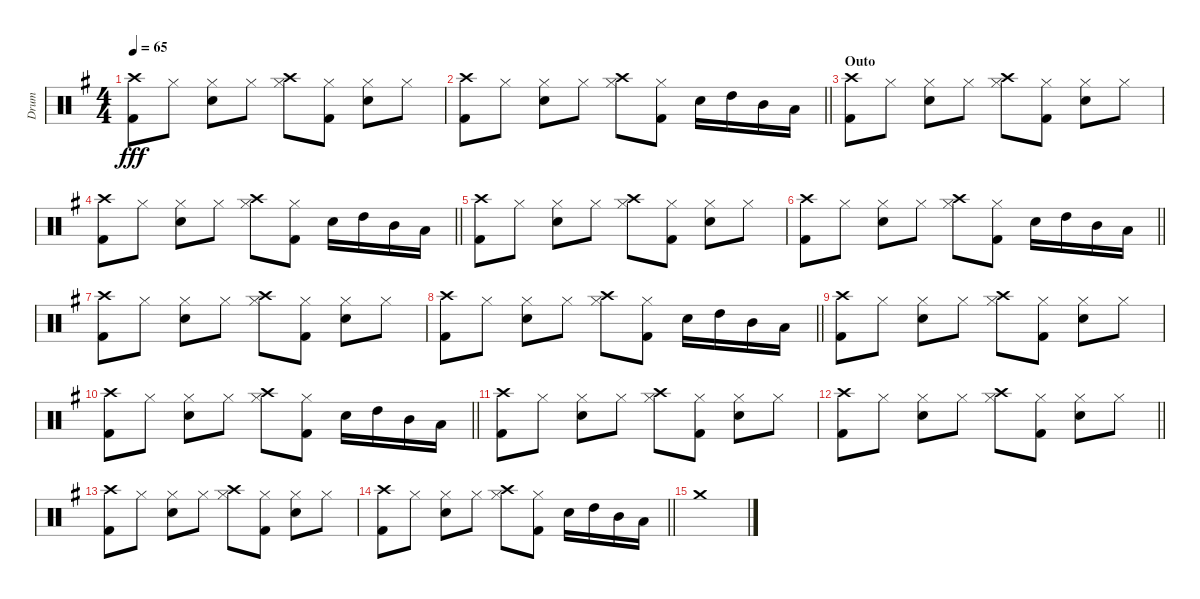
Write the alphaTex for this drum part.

\track ("Drum" "Drum") {instrument percussion}
\staff {score}
\articulation defaults
\ts (4 4)
\tempo 65
\clef neutral
\ks eminor
("Crash high (hit)" "Kick (hit) 2").8{dy fff} "Hi-Hat (closed)".8 ("Electric Snare (hit)" "Hi-Hat (closed)").8 "Hi-Hat (closed)".8 ("Crash high (hit)" "Hi-Hat (closed)").8 ("Kick (hit) 2" "Hi-Hat (closed)").8 ("Electric Snare (hit)" "Hi-Hat (closed)").8 "Hi-Hat (closed)".8 |
\barLineRight lightlight
("Crash high (hit)" "Kick (hit) 2").8 "Hi-Hat (closed)".8 ("Electric Snare (hit)" "Hi-Hat (closed)").8 "Hi-Hat (closed)".8 ("Crash high (hit)" "Hi-Hat (closed)").8 ("Kick (hit) 2" "Hi-Hat (closed)").8 "Electric Snare (hit)".16 "High Tom (hit)".16 "Mid Tom (hit)".16 "Low Tom (hit)".16 |
\section ("" "Outo")
("Crash high (hit)" "Kick (hit) 2").8 "Hi-Hat (closed)".8 ("Electric Snare (hit)" "Hi-Hat (closed)").8 "Hi-Hat (closed)".8 ("Crash high (hit)" "Hi-Hat (closed)").8 ("Kick (hit) 2" "Hi-Hat (closed)").8 ("Electric Snare (hit)" "Hi-Hat (closed)").8 "Hi-Hat (closed)".8 |
\barLineRight lightlight
("Crash high (hit)" "Kick (hit) 2").8 "Hi-Hat (closed)".8 ("Electric Snare (hit)" "Hi-Hat (closed)").8 "Hi-Hat (closed)".8 ("Crash high (hit)" "Hi-Hat (closed)").8 ("Kick (hit) 2" "Hi-Hat (closed)").8 "Electric Snare (hit)".16 "High Tom (hit)".16 "Mid Tom (hit)".16 "Low Tom (hit)".16 |
("Crash high (hit)" "Kick (hit) 2").8 "Hi-Hat (closed)".8 ("Electric Snare (hit)" "Hi-Hat (closed)").8 "Hi-Hat (closed)".8 ("Crash high (hit)" "Hi-Hat (closed)").8 ("Kick (hit) 2" "Hi-Hat (closed)").8 ("Electric Snare (hit)" "Hi-Hat (closed)").8 "Hi-Hat (closed)".8 |
\barLineRight lightlight
("Crash high (hit)" "Kick (hit) 2").8 "Hi-Hat (closed)".8 ("Electric Snare (hit)" "Hi-Hat (closed)").8 "Hi-Hat (closed)".8 ("Crash high (hit)" "Hi-Hat (closed)").8 ("Kick (hit) 2" "Hi-Hat (closed)").8 "Electric Snare (hit)".16 "High Tom (hit)".16 "Mid Tom (hit)".16 "Low Tom (hit)".16 |
("Crash high (hit)" "Kick (hit) 2").8 "Hi-Hat (closed)".8 ("Electric Snare (hit)" "Hi-Hat (closed)").8 "Hi-Hat (closed)".8 ("Crash high (hit)" "Hi-Hat (closed)").8 ("Kick (hit) 2" "Hi-Hat (closed)").8 ("Electric Snare (hit)" "Hi-Hat (closed)").8 "Hi-Hat (closed)".8 |
\barLineRight lightlight
("Crash high (hit)" "Kick (hit) 2").8 "Hi-Hat (closed)".8 ("Electric Snare (hit)" "Hi-Hat (closed)").8 "Hi-Hat (closed)".8 ("Crash high (hit)" "Hi-Hat (closed)").8 ("Kick (hit) 2" "Hi-Hat (closed)").8 "Electric Snare (hit)".16 "High Tom (hit)".16 "Mid Tom (hit)".16 "Low Tom (hit)".16 |
("Crash high (hit)" "Kick (hit) 2").8 "Hi-Hat (closed)".8 ("Electric Snare (hit)" "Hi-Hat (closed)").8 "Hi-Hat (closed)".8 ("Crash high (hit)" "Hi-Hat (closed)").8 ("Kick (hit) 2" "Hi-Hat (closed)").8 ("Electric Snare (hit)" "Hi-Hat (closed)").8 "Hi-Hat (closed)".8 |
\barLineRight lightlight
("Crash high (hit)" "Kick (hit) 2").8 "Hi-Hat (closed)".8 ("Electric Snare (hit)" "Hi-Hat (closed)").8 "Hi-Hat (closed)".8 ("Crash high (hit)" "Hi-Hat (closed)").8 ("Kick (hit) 2" "Hi-Hat (closed)").8 "Electric Snare (hit)".16 "High Tom (hit)".16 "Mid Tom (hit)".16 "Low Tom (hit)".16 |
("Crash high (hit)" "Kick (hit) 2").8 "Hi-Hat (closed)".8 ("Electric Snare (hit)" "Hi-Hat (closed)").8 "Hi-Hat (closed)".8 ("Crash high (hit)" "Hi-Hat (closed)").8 ("Kick (hit) 2" "Hi-Hat (closed)").8 ("Electric Snare (hit)" "Hi-Hat (closed)").8 "Hi-Hat (closed)".8 |
\barLineRight lightlight
("Crash high (hit)" "Kick (hit) 2").8 "Hi-Hat (closed)".8 ("Electric Snare (hit)" "Hi-Hat (closed)").8 "Hi-Hat (closed)".8 ("Crash high (hit)" "Hi-Hat (closed)").8 ("Kick (hit) 2" "Hi-Hat (closed)").8 ("Electric Snare (hit)" "Hi-Hat (closed)").8 "Hi-Hat (closed)".8 |
("Crash high (hit)" "Kick (hit) 2").8 "Hi-Hat (closed)".8 ("Electric Snare (hit)" "Hi-Hat (closed)").8 "Hi-Hat (closed)".8 ("Crash high (hit)" "Hi-Hat (closed)").8 ("Kick (hit) 2" "Hi-Hat (closed)").8 ("Electric Snare (hit)" "Hi-Hat (closed)").8 "Hi-Hat (closed)".8 |
\barLineRight lightlight
("Crash high (hit)" "Kick (hit) 2").8 "Hi-Hat (closed)".8 ("Electric Snare (hit)" "Hi-Hat (closed)").8 "Hi-Hat (closed)".8 ("Crash high (hit)" "Hi-Hat (closed)").8 ("Kick (hit) 2" "Hi-Hat (closed)").8 "Electric Snare (hit)".16 "High Tom (hit)".16 "Mid Tom (hit)".16 "Low Tom (hit)".16 |
"Crash medium (hit)".1
